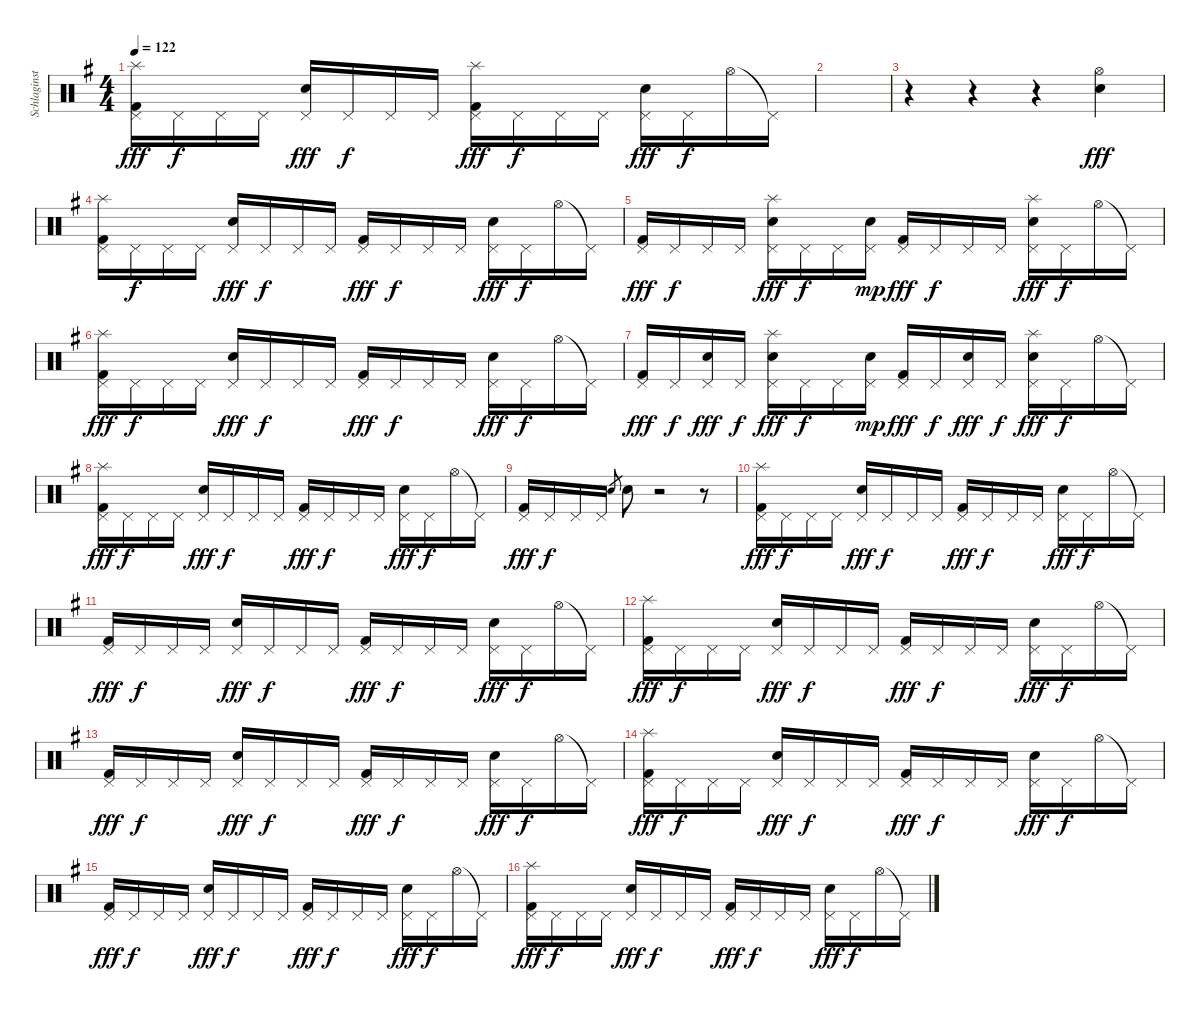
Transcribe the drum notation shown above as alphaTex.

\track ("Schlaginstrumente - Auswahl" "Schlaginst") {instrument percussion}
\staff {score}
\articulation defaults
\ts (4 4)
\tempo 122
\clef neutral
\ks g
("Splash (hit)" "Pedal Hi-Hat (hit)" "Kick (hit) 2").16{dy fff} "Pedal Hi-Hat (hit)".16{dy f} "Pedal Hi-Hat (hit)".16 "Pedal Hi-Hat (hit)".16 ("Pedal Hi-Hat (hit)" "Electric Snare (hit)").16{dy fff} "Pedal Hi-Hat (hit)".16{dy f} "Pedal Hi-Hat (hit)".16 "Pedal Hi-Hat (hit)".16 ("Splash (hit)" "Pedal Hi-Hat (hit)" "Kick (hit) 2").16{dy fff} "Pedal Hi-Hat (hit)".16{dy f} "Pedal Hi-Hat (hit)".16 "Pedal Hi-Hat (hit)".16 ("Pedal Hi-Hat (hit)" "Electric Snare (hit)").16{dy fff} "Pedal Hi-Hat (hit)".16{dy f} "Hi-Hat (open)".16 "Pedal Hi-Hat (hit)"{t}.16 |
|
r.4 r.4 r.4 ("Hi-Hat (open)" "Electric Snare (hit)").4{dy fff} |
("Splash (hit)" "Pedal Hi-Hat (hit)" "Kick (hit) 2").16 "Pedal Hi-Hat (hit)".16{dy f} "Pedal Hi-Hat (hit)".16 "Pedal Hi-Hat (hit)".16 ("Pedal Hi-Hat (hit)" "Electric Snare (hit)").16{dy fff} "Pedal Hi-Hat (hit)".16{dy f} "Pedal Hi-Hat (hit)".16 "Pedal Hi-Hat (hit)".16 ("Pedal Hi-Hat (hit)" "Kick (hit) 2").16{dy fff} "Pedal Hi-Hat (hit)".16{dy f} "Pedal Hi-Hat (hit)".16 "Pedal Hi-Hat (hit)".16 ("Pedal Hi-Hat (hit)" "Electric Snare (hit)").16{dy fff} "Pedal Hi-Hat (hit)".16{dy f} "Hi-Hat (open)".16 "Pedal Hi-Hat (hit)"{t}.16 |
("Pedal Hi-Hat (hit)" "Kick (hit) 2").16{dy fff} "Pedal Hi-Hat (hit)".16{dy f} "Pedal Hi-Hat (hit)".16 "Pedal Hi-Hat (hit)".16 ("Splash (hit)" "Pedal Hi-Hat (hit)" "Electric Snare (hit)").16{dy fff} "Pedal Hi-Hat (hit)".16{dy f} "Pedal Hi-Hat (hit)".16 ("Pedal Hi-Hat (hit)" "Electric Snare (hit)").16{dy mp} ("Pedal Hi-Hat (hit)" "Kick (hit) 2").16{dy fff} "Pedal Hi-Hat (hit)".16{dy f} "Pedal Hi-Hat (hit)".16 "Pedal Hi-Hat (hit)".16 ("Splash (hit)" "Pedal Hi-Hat (hit)" "Electric Snare (hit)").16{dy fff} "Pedal Hi-Hat (hit)".16{dy f} "Hi-Hat (open)".16 "Pedal Hi-Hat (hit)"{t}.16 |
("Splash (hit)" "Pedal Hi-Hat (hit)" "Kick (hit) 2").16{dy fff} "Pedal Hi-Hat (hit)".16{dy f} "Pedal Hi-Hat (hit)".16 "Pedal Hi-Hat (hit)".16 ("Pedal Hi-Hat (hit)" "Electric Snare (hit)").16{dy fff} "Pedal Hi-Hat (hit)".16{dy f} "Pedal Hi-Hat (hit)".16 "Pedal Hi-Hat (hit)".16 ("Pedal Hi-Hat (hit)" "Kick (hit) 2").16{dy fff} "Pedal Hi-Hat (hit)".16{dy f} "Pedal Hi-Hat (hit)".16 "Pedal Hi-Hat (hit)".16 ("Pedal Hi-Hat (hit)" "Electric Snare (hit)").16{dy fff} "Pedal Hi-Hat (hit)".16{dy f} "Hi-Hat (open)".16 "Pedal Hi-Hat (hit)"{t}.16 |
("Pedal Hi-Hat (hit)" "Kick (hit) 2").16{dy fff} "Pedal Hi-Hat (hit)".16{dy f} ("Pedal Hi-Hat (hit)" "Electric Snare (hit)").16{dy fff} "Pedal Hi-Hat (hit)".16{dy f} ("Splash (hit)" "Pedal Hi-Hat (hit)" "Electric Snare (hit)").16{dy fff} "Pedal Hi-Hat (hit)".16{dy f} "Pedal Hi-Hat (hit)".16 ("Pedal Hi-Hat (hit)" "Electric Snare (hit)").16{dy mp} ("Pedal Hi-Hat (hit)" "Kick (hit) 2").16{dy fff} "Pedal Hi-Hat (hit)".16{dy f} ("Pedal Hi-Hat (hit)" "Electric Snare (hit)").16{dy fff} "Pedal Hi-Hat (hit)".16{dy f} ("Splash (hit)" "Pedal Hi-Hat (hit)" "Electric Snare (hit)").16{dy fff} "Pedal Hi-Hat (hit)".16{dy f} "Hi-Hat (open)".16 "Pedal Hi-Hat (hit)"{t}.16 |
("Splash (hit)" "Pedal Hi-Hat (hit)" "Kick (hit) 2").16{dy fff} "Pedal Hi-Hat (hit)".16{dy f} "Pedal Hi-Hat (hit)".16 "Pedal Hi-Hat (hit)".16 ("Pedal Hi-Hat (hit)" "Electric Snare (hit)").16{dy fff} "Pedal Hi-Hat (hit)".16{dy f} "Pedal Hi-Hat (hit)".16 "Pedal Hi-Hat (hit)".16 ("Pedal Hi-Hat (hit)" "Kick (hit) 2").16{dy fff} "Pedal Hi-Hat (hit)".16{dy f} "Pedal Hi-Hat (hit)".16 "Pedal Hi-Hat (hit)".16 ("Pedal Hi-Hat (hit)" "Electric Snare (hit)").16{dy fff} "Pedal Hi-Hat (hit)".16{dy f} "Hi-Hat (open)".16 "Pedal Hi-Hat (hit)"{t}.16 |
("Pedal Hi-Hat (hit)" "Kick (hit) 2").16{dy fff} "Pedal Hi-Hat (hit)".16{dy f} "Pedal Hi-Hat (hit)".16 "Pedal Hi-Hat (hit)".16 "Electric Snare (hit)".8{gr} "Electric Snare (hit)".8 r.2 r.8 |
("Splash (hit)" "Pedal Hi-Hat (hit)" "Kick (hit) 2").16{dy fff} "Pedal Hi-Hat (hit)".16{dy f} "Pedal Hi-Hat (hit)".16 "Pedal Hi-Hat (hit)".16 ("Pedal Hi-Hat (hit)" "Electric Snare (hit)").16{dy fff} "Pedal Hi-Hat (hit)".16{dy f} "Pedal Hi-Hat (hit)".16 "Pedal Hi-Hat (hit)".16 ("Pedal Hi-Hat (hit)" "Kick (hit) 2").16{dy fff} "Pedal Hi-Hat (hit)".16{dy f} "Pedal Hi-Hat (hit)".16 "Pedal Hi-Hat (hit)".16 ("Pedal Hi-Hat (hit)" "Electric Snare (hit)").16{dy fff} "Pedal Hi-Hat (hit)".16{dy f} "Hi-Hat (open)".16 "Pedal Hi-Hat (hit)"{t}.16 |
("Pedal Hi-Hat (hit)" "Kick (hit) 2").16{dy fff} "Pedal Hi-Hat (hit)".16{dy f} "Pedal Hi-Hat (hit)".16 "Pedal Hi-Hat (hit)".16 ("Pedal Hi-Hat (hit)" "Electric Snare (hit)").16{dy fff} "Pedal Hi-Hat (hit)".16{dy f} "Pedal Hi-Hat (hit)".16 "Pedal Hi-Hat (hit)".16 ("Pedal Hi-Hat (hit)" "Kick (hit) 2").16{dy fff} "Pedal Hi-Hat (hit)".16{dy f} "Pedal Hi-Hat (hit)".16 "Pedal Hi-Hat (hit)".16 ("Pedal Hi-Hat (hit)" "Electric Snare (hit)").16{dy fff} "Pedal Hi-Hat (hit)".16{dy f} "Hi-Hat (open)".16 "Pedal Hi-Hat (hit)"{t}.16 |
("Splash (hit)" "Pedal Hi-Hat (hit)" "Kick (hit) 2").16{dy fff} "Pedal Hi-Hat (hit)".16{dy f} "Pedal Hi-Hat (hit)".16 "Pedal Hi-Hat (hit)".16 ("Pedal Hi-Hat (hit)" "Electric Snare (hit)").16{dy fff} "Pedal Hi-Hat (hit)".16{dy f} "Pedal Hi-Hat (hit)".16 "Pedal Hi-Hat (hit)".16 ("Pedal Hi-Hat (hit)" "Kick (hit) 2").16{dy fff} "Pedal Hi-Hat (hit)".16{dy f} "Pedal Hi-Hat (hit)".16 "Pedal Hi-Hat (hit)".16 ("Pedal Hi-Hat (hit)" "Electric Snare (hit)").16{dy fff} "Pedal Hi-Hat (hit)".16{dy f} "Hi-Hat (open)".16 "Pedal Hi-Hat (hit)"{t}.16 |
("Pedal Hi-Hat (hit)" "Kick (hit) 2").16{dy fff} "Pedal Hi-Hat (hit)".16{dy f} "Pedal Hi-Hat (hit)".16 "Pedal Hi-Hat (hit)".16 ("Pedal Hi-Hat (hit)" "Electric Snare (hit)").16{dy fff} "Pedal Hi-Hat (hit)".16{dy f} "Pedal Hi-Hat (hit)".16 "Pedal Hi-Hat (hit)".16 ("Pedal Hi-Hat (hit)" "Kick (hit) 2").16{dy fff} "Pedal Hi-Hat (hit)".16{dy f} "Pedal Hi-Hat (hit)".16 "Pedal Hi-Hat (hit)".16 ("Pedal Hi-Hat (hit)" "Electric Snare (hit)").16{dy fff} "Pedal Hi-Hat (hit)".16{dy f} "Hi-Hat (open)".16 "Pedal Hi-Hat (hit)"{t}.16 |
("Splash (hit)" "Pedal Hi-Hat (hit)" "Kick (hit) 2").16{dy fff} "Pedal Hi-Hat (hit)".16{dy f} "Pedal Hi-Hat (hit)".16 "Pedal Hi-Hat (hit)".16 ("Pedal Hi-Hat (hit)" "Electric Snare (hit)").16{dy fff} "Pedal Hi-Hat (hit)".16{dy f} "Pedal Hi-Hat (hit)".16 "Pedal Hi-Hat (hit)".16 ("Pedal Hi-Hat (hit)" "Kick (hit) 2").16{dy fff} "Pedal Hi-Hat (hit)".16{dy f} "Pedal Hi-Hat (hit)".16 "Pedal Hi-Hat (hit)".16 ("Pedal Hi-Hat (hit)" "Electric Snare (hit)").16{dy fff} "Pedal Hi-Hat (hit)".16{dy f} "Hi-Hat (open)".16 "Pedal Hi-Hat (hit)"{t}.16 |
("Pedal Hi-Hat (hit)" "Kick (hit) 2").16{dy fff} "Pedal Hi-Hat (hit)".16{dy f} "Pedal Hi-Hat (hit)".16 "Pedal Hi-Hat (hit)".16 ("Pedal Hi-Hat (hit)" "Electric Snare (hit)").16{dy fff} "Pedal Hi-Hat (hit)".16{dy f} "Pedal Hi-Hat (hit)".16 "Pedal Hi-Hat (hit)".16 ("Pedal Hi-Hat (hit)" "Kick (hit) 2").16{dy fff} "Pedal Hi-Hat (hit)".16{dy f} "Pedal Hi-Hat (hit)".16 "Pedal Hi-Hat (hit)".16 ("Pedal Hi-Hat (hit)" "Electric Snare (hit)").16{dy fff} "Pedal Hi-Hat (hit)".16{dy f} "Hi-Hat (open)".16 "Pedal Hi-Hat (hit)"{t}.16 |
("Splash (hit)" "Pedal Hi-Hat (hit)" "Kick (hit) 2").16{dy fff} "Pedal Hi-Hat (hit)".16{dy f} "Pedal Hi-Hat (hit)".16 "Pedal Hi-Hat (hit)".16 ("Pedal Hi-Hat (hit)" "Electric Snare (hit)").16{dy fff} "Pedal Hi-Hat (hit)".16{dy f} "Pedal Hi-Hat (hit)".16 "Pedal Hi-Hat (hit)".16 ("Pedal Hi-Hat (hit)" "Kick (hit) 2").16{dy fff} "Pedal Hi-Hat (hit)".16{dy f} "Pedal Hi-Hat (hit)".16 "Pedal Hi-Hat (hit)".16 ("Pedal Hi-Hat (hit)" "Electric Snare (hit)").16{dy fff} "Pedal Hi-Hat (hit)".16{dy f} "Hi-Hat (open)".16 "Pedal Hi-Hat (hit)"{t}.16
